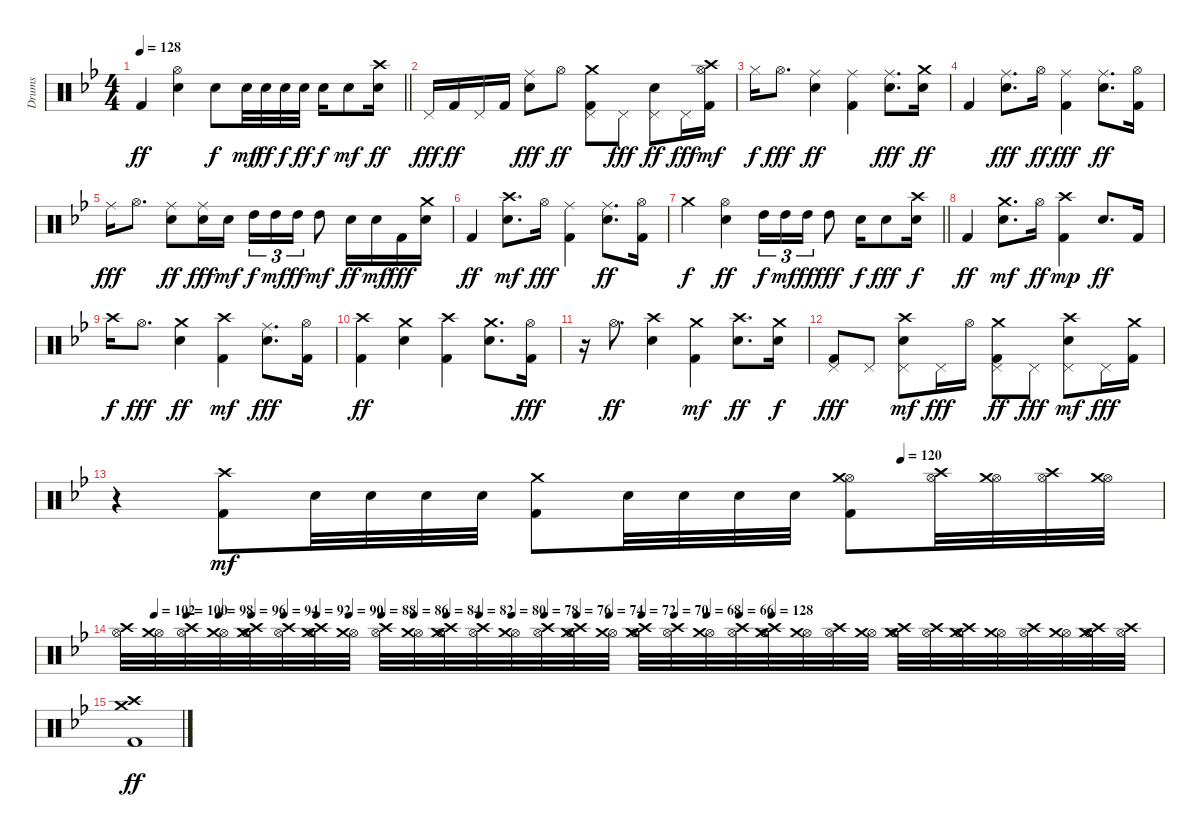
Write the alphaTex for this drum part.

\track ("Drums" "Drums") {instrument percussion}
\staff {score}
\articulation defaults
\ts (4 4)
\tempo 128
\clef neutral
\barLineRight lightlight
\ks gminor "Kick (hit) 2".4{dy ff}
("Snare (hit) 2" "Hi-Hat (open)").4 "Snare (hit) 2".8{dy f} "Snare (hit) 2".32{dy mf} "Snare (hit) 2".32{dy ff} "Snare (hit) 2".32{dy f} "Snare (hit) 2".32{dy ff} "Snare (hit) 2".16{dy f} "Snare (hit) 2".8{dy mf} ("Snare (hit) 2" "Crash high (hit)").16{dy ff} |
"Pedal Hi-Hat (hit)".16{dy fff} "Kick (hit) 2".16{dy ff} "Pedal Hi-Hat (hit)".16 "Kick (hit) 2".16 ("Snare (hit) 2" "Ride (middle)").8{dy fff} "Hi-Hat (open)".8{dy ff} ("Crash medium (hit)" "Kick (hit) 2" "Pedal Hi-Hat (hit)").8 "Pedal Hi-Hat (hit)".8{dy fff} ("Pedal Hi-Hat (hit)" "Snare (hit) 2").8{dy ff} "Pedal Hi-Hat (hit)".16{dy fff} ("Hi-Hat (open)" "Kick (hit) 2" "Crash high (hit)").16{dy mf} |
"Hi-Hat (closed)".16{dy f} "Hi-Hat (open)".8{d dy fff} ("Snare (hit) 2" "Ride (middle)").4{dy ff} ("Kick (hit) 2" "Ride (middle)").4 ("Snare (hit) 2" "Ride (middle)").8{d dy fff} ("Snare (hit) 2" "Crash medium (hit)").16{dy ff} |
"Kick (hit) 2".4 ("Snare (hit) 2" "Ride (middle)").8{d dy fff} "Hi-Hat (open)".16{dy ff} ("Kick (hit) 2" "Ride (middle)").4{dy fff} ("Snare (hit) 2" "Ride (middle)").8{d dy ff} ("Kick (hit) 2" "Hi-Hat (open)").16 |
"Ride (middle)".16{dy fff} "Hi-Hat (open)".8{d} ("Ride (middle)" "Snare (hit) 2").8{dy ff} ("Ride (middle)" "Snare (hit) 2").16{dy fff} "Snare (hit) 2".16{dy mf} "High Tom (hit)".16{tu (3 2) dy f} "High Tom (hit)".16{tu (3 2) dy mf} "High Tom (hit)".16{tu (3 2) dy ff} "High Tom (hit)".8{dy mf} "Snare (hit) 2".16{dy ff} "Snare (hit) 2".16{dy mf} "Kick (hit) 2".16{dy fff} ("Snare (hit) 2" "Crash medium (hit)").16 |
"Kick (hit) 2".4{dy ff} ("Snare (hit) 2" "Crash high (hit)").8{d dy mf} "Hi-Hat (open)".16{dy fff} ("Kick (hit) 2" "Ride (middle)").4 ("Snare (hit) 2" "Ride (middle)").8{d dy ff} ("Kick (hit) 2" "Hi-Hat (open)").16 |
\barLineRight lightlight "Crash medium (hit)".4{dy f}
("Hi-Hat (open)" "Snare (hit) 2").4{dy ff} "High Tom (hit)".16{tu (3 2) dy f} "High Tom (hit)".16{tu (3 2) dy mf} "High Tom (hit)".16{tu (3 2) dy ff} "High Tom (hit)".8{dy fff} "Snare (hit) 2".16{dy f} "Snare (hit) 2".8{dy fff} ("Snare (hit) 2" "Crash high (hit)").16{dy f} |
"Kick (hit) 2".4{dy ff} ("Snare (hit) 2" "Crash medium (hit)").8{d dy mf} "Hi-Hat (open)".16{dy ff} ("Kick (hit) 2" "Crash high (hit)").4{dy mp} "Snare (hit) 2".8{d dy ff} "Kick (hit) 2".16 |
"Crash high (hit)".16{dy f} "Hi-Hat (open)".8{d dy fff} ("Crash medium (hit)" "Snare (hit) 2").4{dy ff} ("Kick (hit) 2" "Crash high (hit)").4{dy mf} ("Snare (hit) 2" "Ride (middle)").8{d dy fff} ("Kick (hit) 2" "Hi-Hat (open)").16 |
("Crash high (hit)" "Kick (hit) 2").4{dy ff} ("Crash medium (hit)" "Snare (hit) 2").4 ("Crash high (hit)" "Kick (hit) 2").4 ("Snare (hit) 2" "Crash medium (hit)").8{d} ("Kick (hit) 2" "Hi-Hat (open)").16{dy fff} |
r.16 "Hi-Hat (open)".8{d dy ff} ("Snare (hit) 2" "Crash high (hit)").4 ("Kick (hit) 2" "Crash medium (hit)").4{dy mf} ("Snare (hit) 2" "Crash high (hit)").8{d dy ff} ("Snare (hit) 2" "Crash medium (hit)").16{dy f} |
("Kick (hit) 2" "Pedal Hi-Hat (hit)").8{dy fff} "Pedal Hi-Hat (hit)".8 ("Pedal Hi-Hat (hit)" "Snare (hit) 2" "Crash high (hit)").8{dy mf} "Pedal Hi-Hat (hit)".16{dy fff} "Hi-Hat (open)".16 ("Pedal Hi-Hat (hit)" "Kick (hit) 2" "Crash medium (hit)").8{dy ff} "Pedal Hi-Hat (hit)".8{dy fff} ("Pedal Hi-Hat (hit)" "Snare (hit) 2" "Crash high (hit)").8{dy mf} "Pedal Hi-Hat (hit)".16{dy fff} ("Kick (hit) 2" "Crash medium (hit)").16 |
\tempo (120 0.75)
r.4 ("Crash high (hit)" "Kick (hit) 2").8{dy mf} "Snare (hit) 2".32 "Snare (hit) 2".32 "Snare (hit) 2".32 "Snare (hit) 2".32 ("Crash medium (hit)" "Kick (hit) 2").8 "Snare (hit) 2".32 "Snare (hit) 2".32 "Snare (hit) 2".32 "Snare (hit) 2".32 ("Kick (hit) 2" "Hi-Hat (open)" "Crash medium (hit)").8 ("Hi-Hat (open)" "Crash high (hit)").32 ("Hi-Hat (open)" "Crash medium (hit)").32 ("Hi-Hat (open)" "Crash high (hit)").32 ("Hi-Hat (open)" "Crash medium (hit)").32 |
\tempo (102 0.03125)
\tempo (100 0.0625)
\tempo (98 0.09375)
\tempo (96 0.125)
\tempo (94 0.15625)
\tempo (92 0.1875)
\tempo (90 0.21875)
\tempo (88 0.25)
\tempo (86 0.28125)
\tempo (84 0.3125)
\tempo (82 0.34375)
\tempo (80 0.375)
\tempo (78 0.40625)
\tempo (76 0.4375)
\tempo (74 0.46875)
\tempo (72 0.5)
\tempo (70 0.53125)
\tempo (68 0.5625)
\tempo (66 0.59375)
\tempo (128 0.625)
("Hi-Hat (open)" "Crash high (hit)").32 ("Hi-Hat (open)" "Crash medium (hit)").32 ("Hi-Hat (open)" "Crash high (hit)").32 ("Hi-Hat (open)" "Crash medium (hit)").32 ("Hi-Hat (open)" "Crash high (hit)" "Hi-Hat (open)" "Crash medium (hit)").32 ("Hi-Hat (open)" "Crash high (hit)").32 ("Hi-Hat (open)" "Crash medium (hit)" "Hi-Hat (open)" "Crash high (hit)").32 ("Hi-Hat (open)" "Crash medium (hit)").32 ("Hi-Hat (open)" "Crash high (hit)").32 ("Hi-Hat (open)" "Crash medium (hit)").32 ("Hi-Hat (open)" "Crash high (hit)" "Hi-Hat (open)" "Crash medium (hit)").32 ("Hi-Hat (open)" "Crash high (hit)").32 ("Hi-Hat (open)" "Crash medium (hit)").32 ("Hi-Hat (open)" "Crash high (hit)").32 ("Hi-Hat (open)" "Crash medium (hit)" "Hi-Hat (open)" "Crash high (hit)").32 ("Hi-Hat (open)" "Crash medium (hit)").32 ("Hi-Hat (open)" "Crash high (hit)" "Hi-Hat (open)" "Crash medium (hit)").32 ("Hi-Hat (open)" "Crash high (hit)").32 ("Hi-Hat (open)" "Crash medium (hit)").32 ("Hi-Hat (open)" "Crash high (hit)").32 ("Hi-Hat (open)" "Crash medium (hit)" "Hi-Hat (open)" "Crash high (hit)").32 ("Hi-Hat (open)" "Crash medium (hit)").32 ("Hi-Hat (open)" "Crash high (hit)").32 ("Hi-Hat (open)" "Crash medium (hit)").32 ("Hi-Hat (open)" "Crash high (hit)" "Hi-Hat (open)" "Crash medium (hit)").32 ("Hi-Hat (open)" "Crash high (hit)").32 ("Hi-Hat (open)" "Crash medium (hit)" "Hi-Hat (open)" "Crash high (hit)").32 ("Hi-Hat (open)" "Crash medium (hit)").32 ("Hi-Hat (open)" "Crash high (hit)").32 ("Hi-Hat (open)" "Crash medium (hit)").32 ("Hi-Hat (open)" "Crash high (hit)" "Hi-Hat (open)" "Crash medium (hit)").32 ("Hi-Hat (open)" "Crash high (hit)").32 |
("Kick (hit) 2" "Crash medium (hit)" "Crash high (hit)").1{dy ff}
